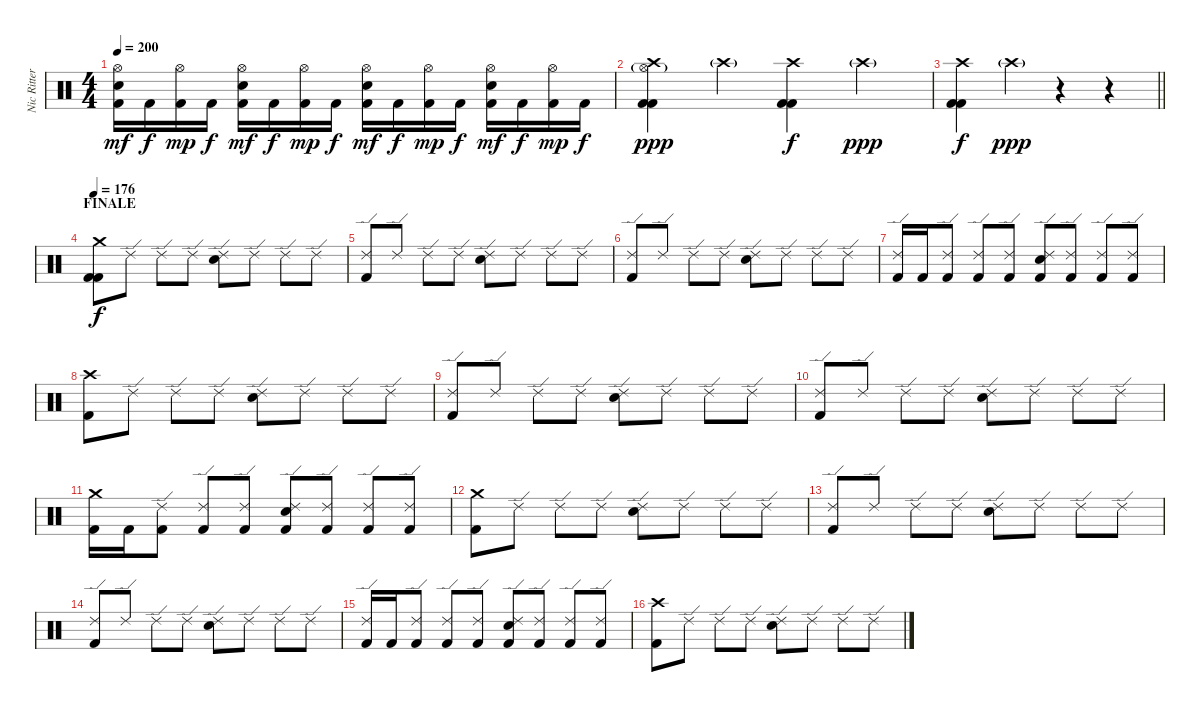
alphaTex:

\track ("Nic Ritter" "Nic Ritter") {instrument percussion}
\staff {score}
\articulation defaults
\ts (4 4)
\tempo 200
\clef neutral
\ks c
("Hi-Hat (open)" "Electric Snare (hit)" "Kick (hit) 2").16{dy mf} "Kick (hit) 2".16{dy f} ("Hi-Hat (open)" "Kick (hit) 2").16{dy mp} "Kick (hit) 2".16{dy f} ("Hi-Hat (open)" "Electric Snare (hit)" "Kick (hit) 2").16{dy mf} "Kick (hit) 2".16{dy f} ("Hi-Hat (open)" "Kick (hit) 2").16{dy mp} "Kick (hit) 2".16{dy f} ("Hi-Hat (open)" "Electric Snare (hit)" "Kick (hit) 2").16{dy mf} "Kick (hit) 2".16{dy f} ("Hi-Hat (open)" "Kick (hit) 2").16{dy mp} "Kick (hit) 2".16{dy f} ("Hi-Hat (open)" "Electric Snare (hit)" "Kick (hit) 2").16{dy mf} "Kick (hit) 2".16{dy f} ("Hi-Hat (open)" "Kick (hit) 2").16{dy mp} "Kick (hit) 2".16{dy f} |
("Crash high (hit)" "Hi-Hat (open)"{g} "Kick (hit) 2" "Kick (hit) 2").4{dy ppp} "Crash high (hit)"{g}.4 ("Crash high (hit)" "Kick (hit) 2" "Kick (hit) 2").4{dy f} "Crash high (hit)"{g}.4{dy ppp} |
\barLineRight lightlight
("Crash high (hit)" "Kick (hit) 2" "Kick (hit) 2").4{dy f} "Crash high (hit)"{g}.4{dy ppp volume 0} r.4 r.4 |
\section ("" "FINALE")
\tempo 176
("Crash medium (hit)" "Kick (hit) 2" "Kick (hit) 2").8{dy f volume 15} "Ride (edge) 2".8 "Ride (edge) 2".8 "Ride (edge) 2".8 ("Ride (edge) 2" "Electric Snare (hit)").8 "Ride (edge) 2".8 "Ride (edge) 2".8 "Ride (edge) 2".8 |
("Ride (edge) 2" "Kick (hit) 2").8 "Ride (edge) 2".8 "Ride (edge) 2".8 "Ride (edge) 2".8 ("Ride (edge) 2" "Electric Snare (hit)").8 "Ride (edge) 2".8 "Ride (edge) 2".8 "Ride (edge) 2".8 |
("Ride (edge) 2" "Kick (hit) 2").8 "Ride (edge) 2".8 "Ride (edge) 2".8 "Ride (edge) 2".8 ("Ride (edge) 2" "Electric Snare (hit)").8 "Ride (edge) 2".8 "Ride (edge) 2".8 "Ride (edge) 2".8 |
("Ride (edge) 2" "Kick (hit) 2").16 "Kick (hit) 2".16 ("Ride (edge) 2" "Kick (hit) 2").8 ("Ride (edge) 2" "Kick (hit) 2").8 ("Ride (edge) 2" "Kick (hit) 2").8 ("Ride (edge) 2" "Electric Snare (hit)" "Kick (hit) 2").8 ("Ride (edge) 2" "Kick (hit) 2").8 ("Ride (edge) 2" "Kick (hit) 2").8 ("Ride (edge) 2" "Kick (hit) 2").8 |
("Crash high (hit)" "Kick (hit) 2").8 "Ride (edge) 2".8 "Ride (edge) 2".8 "Ride (edge) 2".8 ("Ride (edge) 2" "Electric Snare (hit)").8 "Ride (edge) 2".8 "Ride (edge) 2".8 "Ride (edge) 2".8 |
("Ride (edge) 2" "Kick (hit) 2").8 "Ride (edge) 2".8 "Ride (edge) 2".8 "Ride (edge) 2".8 ("Ride (edge) 2" "Electric Snare (hit)").8 "Ride (edge) 2".8 "Ride (edge) 2".8 "Ride (edge) 2".8 |
("Ride (edge) 2" "Kick (hit) 2").8 "Ride (edge) 2".8 "Ride (edge) 2".8 "Ride (edge) 2".8 ("Ride (edge) 2" "Electric Snare (hit)").8 "Ride (edge) 2".8 "Ride (edge) 2".8 "Ride (edge) 2".8 |
("Crash medium (hit)" "Kick (hit) 2").16 "Kick (hit) 2".16 ("Ride (edge) 2" "Kick (hit) 2").8 ("Ride (edge) 2" "Kick (hit) 2").8 ("Ride (edge) 2" "Kick (hit) 2").8 ("Ride (edge) 2" "Electric Snare (hit)" "Kick (hit) 2").8 ("Ride (edge) 2" "Kick (hit) 2").8 ("Ride (edge) 2" "Kick (hit) 2").8 ("Ride (edge) 2" "Kick (hit) 2").8 |
("Crash medium (hit)" "Kick (hit) 2").8 "Ride (edge) 2".8 "Ride (edge) 2".8 "Ride (edge) 2".8 ("Ride (edge) 2" "Electric Snare (hit)").8 "Ride (edge) 2".8 "Ride (edge) 2".8 "Ride (edge) 2".8 |
("Ride (edge) 2" "Kick (hit) 2").8 "Ride (edge) 2".8 "Ride (edge) 2".8 "Ride (edge) 2".8 ("Ride (edge) 2" "Electric Snare (hit)").8 "Ride (edge) 2".8 "Ride (edge) 2".8 "Ride (edge) 2".8 |
("Ride (edge) 2" "Kick (hit) 2").8 "Ride (edge) 2".8 "Ride (edge) 2".8 "Ride (edge) 2".8 ("Ride (edge) 2" "Electric Snare (hit)").8 "Ride (edge) 2".8 "Ride (edge) 2".8 "Ride (edge) 2".8 |
("Ride (edge) 2" "Kick (hit) 2").16 "Kick (hit) 2".16 ("Ride (edge) 2" "Kick (hit) 2").8 ("Ride (edge) 2" "Kick (hit) 2").8 ("Ride (edge) 2" "Kick (hit) 2").8 ("Ride (edge) 2" "Electric Snare (hit)" "Kick (hit) 2").8 ("Ride (edge) 2" "Kick (hit) 2").8 ("Ride (edge) 2" "Kick (hit) 2").8 ("Ride (edge) 2" "Kick (hit) 2").8 |
("Crash high (hit)" "Kick (hit) 2").8 "Ride (edge) 2".8 "Ride (edge) 2".8 "Ride (edge) 2".8 ("Ride (edge) 2" "Electric Snare (hit)").8 "Ride (edge) 2".8 "Ride (edge) 2".8 "Ride (edge) 2".8
